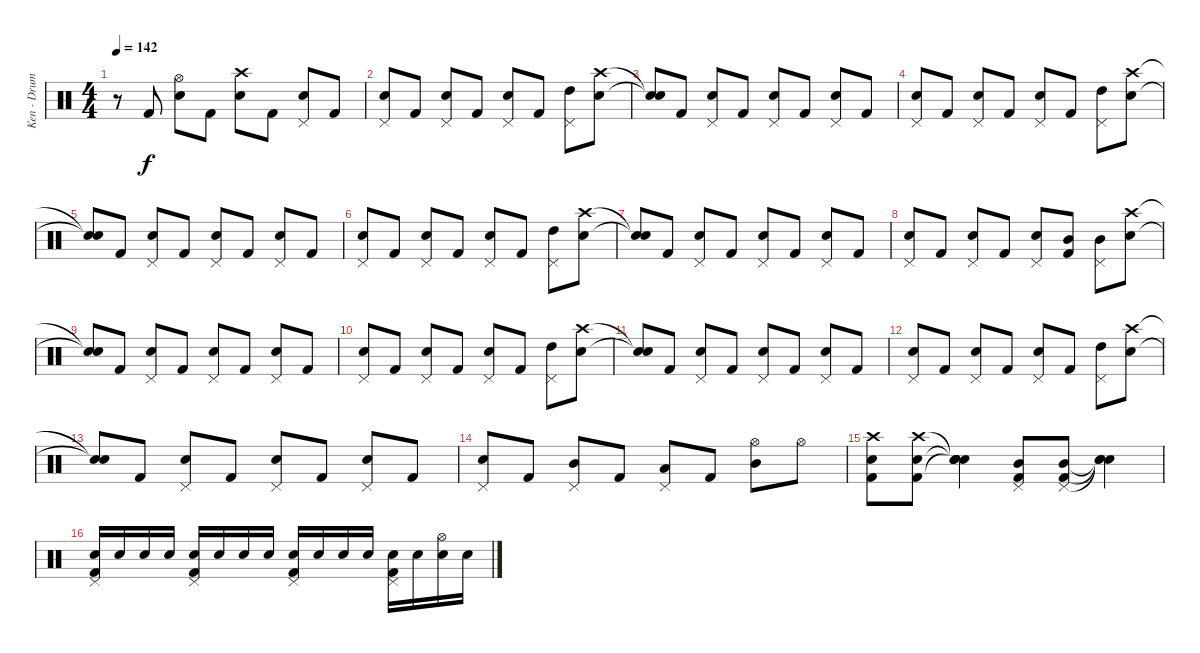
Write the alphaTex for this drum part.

\track ("Ken - Drums" "Ken - Drum") {instrument percussion}
\staff {score}
\articulation defaults
\ts (4 4)
\tempo 142
\clef neutral
\ks c
r.8{dy f} "Kick (hit) 2".8 ("Hi-Hat (open)" "Electric Snare (hit)").8 "Kick (hit) 2".8 ("Crash high (hit)" "Electric Snare (hit)").8 "Kick (hit) 2".8 ("Pedal Hi-Hat (hit)" "Electric Snare (hit)").8 "Kick (hit) 2".8 |
("Pedal Hi-Hat (hit)" "Electric Snare (hit)").8 "Kick (hit) 2".8 ("Pedal Hi-Hat (hit)" "Electric Snare (hit)").8 "Kick (hit) 2".8 ("Pedal Hi-Hat (hit)" "Electric Snare (hit)").8 "Kick (hit) 2".8 ("Pedal Hi-Hat (hit)" "High Tom (hit)").8 ("Crash high (hit)" "Electric Snare (hit)").8 |
("Snare (hit)"{t} "Snare (hit)"{t}).8 "Kick (hit) 2".8 ("Pedal Hi-Hat (hit)" "Electric Snare (hit)").8 "Kick (hit) 2".8 ("Pedal Hi-Hat (hit)" "Electric Snare (hit)").8 "Kick (hit) 2".8 ("Pedal Hi-Hat (hit)" "Electric Snare (hit)").8 "Kick (hit) 2".8 |
("Pedal Hi-Hat (hit)" "Electric Snare (hit)").8 "Kick (hit) 2".8 ("Pedal Hi-Hat (hit)" "Electric Snare (hit)").8 "Kick (hit) 2".8 ("Pedal Hi-Hat (hit)" "Electric Snare (hit)").8 "Kick (hit) 2".8 ("Pedal Hi-Hat (hit)" "High Tom (hit)").8 ("Crash high (hit)" "Electric Snare (hit)").8 |
("Snare (hit)"{t} "Snare (hit)"{t}).8 "Kick (hit) 2".8 ("Pedal Hi-Hat (hit)" "Electric Snare (hit)").8 "Kick (hit) 2".8 ("Pedal Hi-Hat (hit)" "Electric Snare (hit)").8 "Kick (hit) 2".8 ("Pedal Hi-Hat (hit)" "Electric Snare (hit)").8 "Kick (hit) 2".8 |
("Pedal Hi-Hat (hit)" "Electric Snare (hit)").8 "Kick (hit) 2".8 ("Pedal Hi-Hat (hit)" "Electric Snare (hit)").8 "Kick (hit) 2".8 ("Pedal Hi-Hat (hit)" "Electric Snare (hit)").8 "Kick (hit) 2".8 ("Pedal Hi-Hat (hit)" "High Tom (hit)").8 ("Crash high (hit)" "Electric Snare (hit)").8 |
("Snare (hit)"{t} "Snare (hit)"{t}).8 "Kick (hit) 2".8 ("Pedal Hi-Hat (hit)" "Electric Snare (hit)").8 "Kick (hit) 2".8 ("Pedal Hi-Hat (hit)" "Electric Snare (hit)").8 "Kick (hit) 2".8 ("Pedal Hi-Hat (hit)" "Electric Snare (hit)").8 "Kick (hit) 2".8 |
("Pedal Hi-Hat (hit)" "Electric Snare (hit)").8 "Kick (hit) 2".8 ("Pedal Hi-Hat (hit)" "Electric Snare (hit)").8 "Kick (hit) 2".8 ("Pedal Hi-Hat (hit)" "Electric Snare (hit)").8 ("Mid Tom (hit)" "Kick (hit) 2").8 ("Pedal Hi-Hat (hit)" "Mid Tom (hit)").8 ("Crash high (hit)" "Electric Snare (hit)").8 |
("Snare (hit)"{t} "Snare (hit)"{t}).8 "Kick (hit) 2".8 ("Pedal Hi-Hat (hit)" "Electric Snare (hit)").8 "Kick (hit) 2".8 ("Pedal Hi-Hat (hit)" "Electric Snare (hit)").8 "Kick (hit) 2".8 ("Pedal Hi-Hat (hit)" "Electric Snare (hit)").8 "Kick (hit) 2".8 |
("Pedal Hi-Hat (hit)" "Electric Snare (hit)").8 "Kick (hit) 2".8 ("Pedal Hi-Hat (hit)" "Electric Snare (hit)").8 "Kick (hit) 2".8 ("Pedal Hi-Hat (hit)" "Electric Snare (hit)").8 "Kick (hit) 2".8 ("Pedal Hi-Hat (hit)" "High Tom (hit)").8 ("Crash high (hit)" "Electric Snare (hit)").8 |
("Snare (hit)"{t} "Snare (hit)"{t}).8 "Kick (hit) 2".8 ("Pedal Hi-Hat (hit)" "Electric Snare (hit)").8 "Kick (hit) 2".8 ("Pedal Hi-Hat (hit)" "Electric Snare (hit)").8 "Kick (hit) 2".8 ("Pedal Hi-Hat (hit)" "Electric Snare (hit)").8 "Kick (hit) 2".8 |
("Pedal Hi-Hat (hit)" "Electric Snare (hit)").8 "Kick (hit) 2".8 ("Pedal Hi-Hat (hit)" "Electric Snare (hit)").8 "Kick (hit) 2".8 ("Pedal Hi-Hat (hit)" "Electric Snare (hit)").8 "Kick (hit) 2".8 ("Pedal Hi-Hat (hit)" "High Tom (hit)").8 ("Crash high (hit)" "Electric Snare (hit)").8 |
("Snare (hit)"{t} "Snare (hit)"{t}).8 "Kick (hit) 2".8 ("Pedal Hi-Hat (hit)" "Electric Snare (hit)").8 "Kick (hit) 2".8 ("Pedal Hi-Hat (hit)" "Electric Snare (hit)").8 "Kick (hit) 2".8 ("Pedal Hi-Hat (hit)" "Electric Snare (hit)").8 "Kick (hit) 2".8 |
("Pedal Hi-Hat (hit)" "Electric Snare (hit)").8 "Kick (hit) 2".8 ("Pedal Hi-Hat (hit)" "Mid Tom (hit)").8 "Kick (hit) 2".8 ("Pedal Hi-Hat (hit)" "Low Tom (hit)").8 "Kick (hit) 2".8 ("Hi-Hat (open)" "Mid Tom (hit)").8 "Hi-Hat (open)".8 |
("Crash high (hit)" "Electric Snare (hit)" "Kick (hit) 2").8 ("Crash high (hit)" "Electric Snare (hit)" "Kick (hit) 2").8 ("Snare (hit)"{t} "Snare (hit)"{t} "Snare (hit)"{t} "Snare (hit)").4 ("Pedal Hi-Hat (hit)" "Mid Tom (hit)" "Kick (hit) 2").8 ("Pedal Hi-Hat (hit)" "Mid Tom (hit)" "Kick (hit) 2").8 ("Snare (hit)"{t} "Snare (hit)"{t} "Snare (hit)"{t}).4 |
("Pedal Hi-Hat (hit)" "Electric Snare (hit)" "Kick (hit) 2").16 "Electric Snare (hit)".16 "Electric Snare (hit)".16 "Electric Snare (hit)".16 ("Pedal Hi-Hat (hit)" "Electric Snare (hit)" "Kick (hit) 2").16 "Electric Snare (hit)".16 "Electric Snare (hit)".16 "Electric Snare (hit)".16 ("Pedal Hi-Hat (hit)" "Electric Snare (hit)" "Kick (hit) 2").16 "Electric Snare (hit)".16 "Electric Snare (hit)".16 "Electric Snare (hit)".16 ("Pedal Hi-Hat (hit)" "Electric Snare (hit)" "Kick (hit) 2").16 "Electric Snare (hit)".16 ("Hi-Hat (open)" "Electric Snare (hit)").16 "Electric Snare (hit)".16
